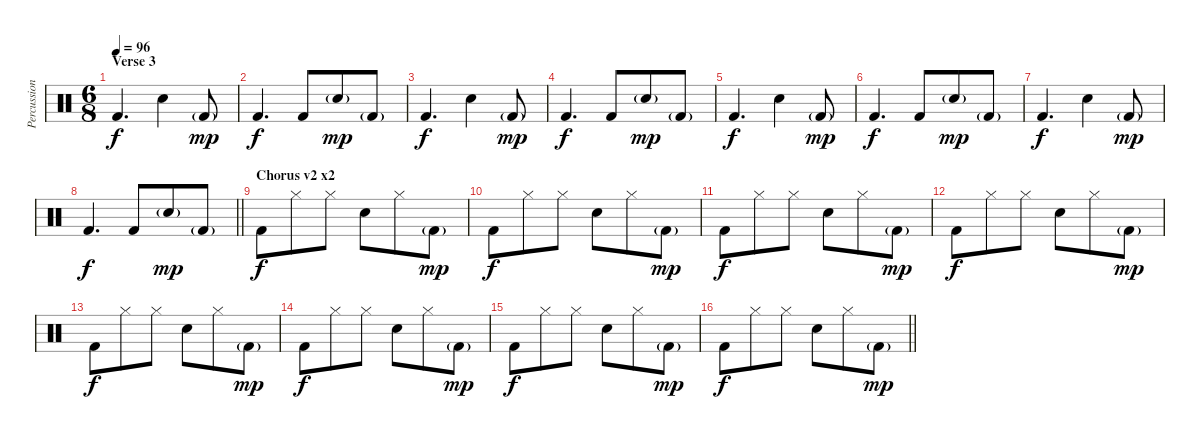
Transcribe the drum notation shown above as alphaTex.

\track ("Percussion" "Percussion") {instrument percussion}
\staff {score}
\articulation defaults
\ts (6 8)
\section ("" "Verse 3")
\tempo 96
\clef neutral
\ks c "Kick (hit) 2".4{d dy f} "Snare (hit) 2".4 "Kick (hit) 2"{g}.8{dy mp}
|
"Kick (hit) 2".4{d dy f} "Kick (hit) 2".8 "Snare (hit) 2"{g}.8{dy mp} "Kick (hit) 2"{g}.8 |
"Kick (hit) 2".4{d dy f} "Snare (hit) 2".4 "Kick (hit) 2"{g}.8{dy mp} |
"Kick (hit) 2".4{d dy f} "Kick (hit) 2".8 "Snare (hit) 2"{g}.8{dy mp} "Kick (hit) 2"{g}.8 |
"Kick (hit) 2".4{d dy f} "Snare (hit) 2".4 "Kick (hit) 2"{g}.8{dy mp} |
"Kick (hit) 2".4{d dy f} "Kick (hit) 2".8 "Snare (hit) 2"{g}.8{dy mp} "Kick (hit) 2"{g}.8 |
"Kick (hit) 2".4{d dy f} "Snare (hit) 2".4 "Kick (hit) 2"{g}.8{dy mp} |
\barLineRight lightlight "Kick (hit) 2".4{d dy f} "Kick (hit) 2".8 "Snare (hit) 2"{g}.8{dy mp} "Kick (hit) 2"{g}.8
|
\section ("" "Chorus v2 x2")
"Kick (hit) 2".8{dy f} "Hi-Hat (closed)".8 "Hi-Hat (closed)".8 "Snare (hit) 2".8 "Hi-Hat (closed)".8 "Kick (hit) 2"{g}.8{dy mp} |
"Kick (hit) 2".8{dy f} "Hi-Hat (closed)".8 "Hi-Hat (closed)".8 "Snare (hit) 2".8 "Hi-Hat (closed)".8 "Kick (hit) 2"{g}.8{dy mp} |
"Kick (hit) 2".8{dy f} "Hi-Hat (closed)".8 "Hi-Hat (closed)".8 "Snare (hit) 2".8 "Hi-Hat (closed)".8 "Kick (hit) 2"{g}.8{dy mp} |
"Kick (hit) 2".8{dy f} "Hi-Hat (closed)".8 "Hi-Hat (closed)".8 "Snare (hit) 2".8 "Hi-Hat (closed)".8 "Kick (hit) 2"{g}.8{dy mp} |
"Kick (hit) 2".8{dy f} "Hi-Hat (closed)".8 "Hi-Hat (closed)".8 "Snare (hit) 2".8 "Hi-Hat (closed)".8 "Kick (hit) 2"{g}.8{dy mp} |
"Kick (hit) 2".8{dy f} "Hi-Hat (closed)".8 "Hi-Hat (closed)".8 "Snare (hit) 2".8 "Hi-Hat (closed)".8 "Kick (hit) 2"{g}.8{dy mp} |
"Kick (hit) 2".8{dy f} "Hi-Hat (closed)".8 "Hi-Hat (closed)".8 "Snare (hit) 2".8 "Hi-Hat (closed)".8 "Kick (hit) 2"{g}.8{dy mp} |
\barLineRight lightlight "Kick (hit) 2".8{dy f} "Hi-Hat (closed)".8 "Hi-Hat (closed)".8 "Snare (hit) 2".8 "Hi-Hat (closed)".8 "Kick (hit) 2"{g}.8{dy mp}
